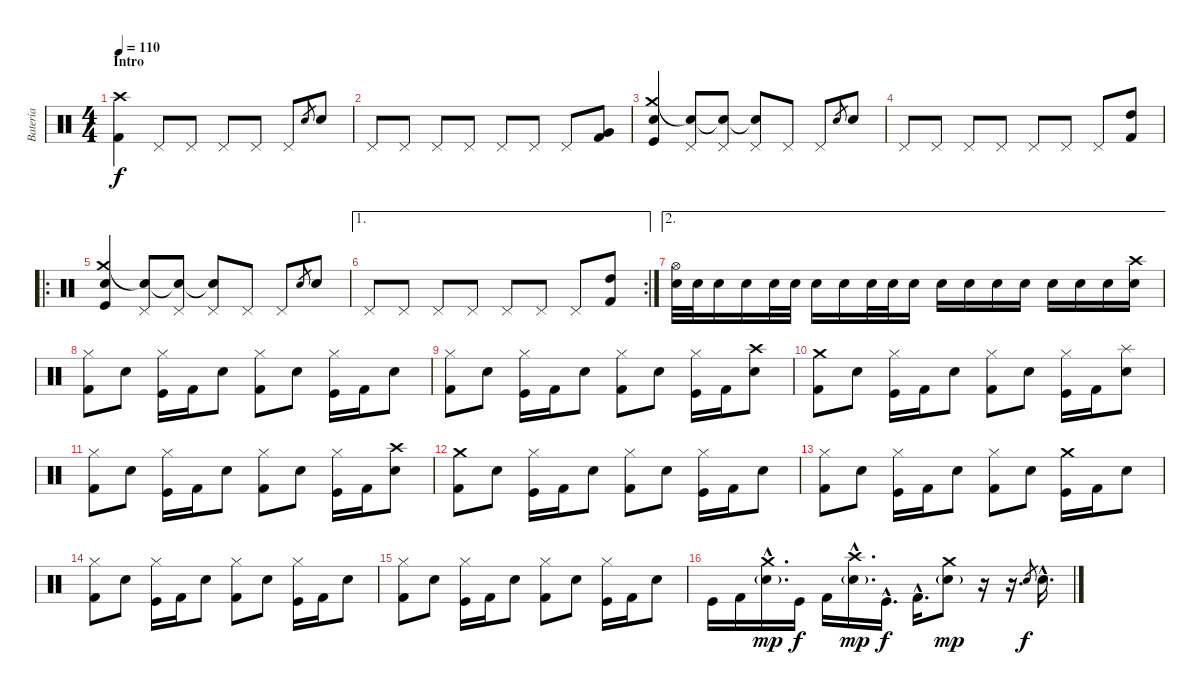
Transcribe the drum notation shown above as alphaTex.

\track ("Batería" "Batería") {instrument percussion}
\staff {score}
\articulation defaults
\ts (4 4)
\section ("" "Intro")
\tempo 110
\clef neutral
\ks c
("Crash high (hit)" "Kick (hit) 2").4{dy f} "Pedal Hi-Hat (hit)".8 "Pedal Hi-Hat (hit)".8 "Pedal Hi-Hat (hit)".8 "Pedal Hi-Hat (hit)".8 "Pedal Hi-Hat (hit)".8 "Snare (hit) 2".8{gr} "Electric Snare (hit)".8 |
"Pedal Hi-Hat (hit)".8 "Pedal Hi-Hat (hit)".8 "Pedal Hi-Hat (hit)".8 "Pedal Hi-Hat (hit)".8 "Pedal Hi-Hat (hit)".8 "Pedal Hi-Hat (hit)".8 "Pedal Hi-Hat (hit)".8 ("Very Low Tom (hit)" "Kick (hit) 2").8 |
("Crash medium (hit)" "Electric Snare (hit)" "Kick (hit)").4 ("Snare (hit)"{t} "Pedal Hi-Hat (hit)").8 ("Snare (hit)"{t} "Pedal Hi-Hat (hit)").8 ("Snare (hit)"{t} "Pedal Hi-Hat (hit)").8 "Pedal Hi-Hat (hit)".8 "Pedal Hi-Hat (hit)".8 "Snare (hit) 2".8{gr} "Electric Snare (hit)".8 |
"Pedal Hi-Hat (hit)".8 "Pedal Hi-Hat (hit)".8 "Pedal Hi-Hat (hit)".8 "Pedal Hi-Hat (hit)".8 "Pedal Hi-Hat (hit)".8 "Pedal Hi-Hat (hit)".8 "Pedal Hi-Hat (hit)".8 ("High Tom (hit)" "Kick (hit) 2").8 |
\ro
("Crash medium (hit)" "Electric Snare (hit)" "Kick (hit)").4 ("Snare (hit)"{t} "Pedal Hi-Hat (hit)").8 ("Snare (hit)"{t} "Pedal Hi-Hat (hit)").8 ("Snare (hit)"{t} "Pedal Hi-Hat (hit)").8 "Pedal Hi-Hat (hit)".8 "Pedal Hi-Hat (hit)".8 "Snare (hit) 2".8{gr} "Electric Snare (hit)".8 |
\ae 1
\rc 2 "Pedal Hi-Hat (hit)".8 "Pedal Hi-Hat (hit)".8 "Pedal Hi-Hat (hit)".8 "Pedal Hi-Hat (hit)".8 "Pedal Hi-Hat (hit)".8 "Pedal Hi-Hat (hit)".8 "Pedal Hi-Hat (hit)".8
("High Tom (hit)" "Kick (hit) 2").8 |
\ae 2
("Hi-Hat (open)" "Electric Snare (hit)").32 "Electric Snare (hit)".32 "Electric Snare (hit)".16 "Electric Snare (hit)".16 "Electric Snare (hit)".32 "Electric Snare (hit)".32 "Electric Snare (hit)".16 "Electric Snare (hit)".16 "Electric Snare (hit)".32 "Electric Snare (hit)".32 "Electric Snare (hit)".16 "Electric Snare (hit)".16 "Electric Snare (hit)".16 "Electric Snare (hit)".16 "Electric Snare (hit)".16 "Electric Snare (hit)".16 "Electric Snare (hit)".16 "Electric Snare (hit)".16 ("Crash high (hit)" "Electric Snare (hit)").16 |
("Hi-Hat (closed)" "Kick (hit) 2").8 "Electric Snare (hit)".8 ("Hi-Hat (closed)" "Kick (hit)").16 "Kick (hit) 2".16 "Electric Snare (hit)".8 ("Hi-Hat (closed)" "Kick (hit) 2").8 "Electric Snare (hit)".8 ("Hi-Hat (closed)" "Kick (hit)").16 "Kick (hit) 2".16 "Electric Snare (hit)".8 |
("Hi-Hat (closed)" "Kick (hit) 2").8 "Electric Snare (hit)".8 ("Hi-Hat (closed)" "Kick (hit)").16 "Kick (hit) 2".16 "Electric Snare (hit)".8 ("Hi-Hat (closed)" "Kick (hit) 2").8 "Electric Snare (hit)".8 ("Hi-Hat (closed)" "Kick (hit)").16 "Kick (hit) 2".16 ("Crash high (hit)" "Electric Snare (hit)").8 |
("Crash medium (hit)" "Kick (hit) 2").8 "Electric Snare (hit)".8 ("Hi-Hat (closed)" "Kick (hit)").16 "Kick (hit) 2".16 "Electric Snare (hit)".8 ("Hi-Hat (closed)" "Kick (hit) 2").8 "Electric Snare (hit)".8 ("Hi-Hat (closed)" "Kick (hit)").16 "Kick (hit) 2".16 ("Splash (hit)" "Electric Snare (hit)").8 |
("Hi-Hat (closed)" "Kick (hit) 2").8 "Electric Snare (hit)".8 ("Hi-Hat (closed)" "Kick (hit)").16 "Kick (hit) 2".16 "Electric Snare (hit)".8 ("Hi-Hat (closed)" "Kick (hit) 2").8 "Electric Snare (hit)".8 ("Hi-Hat (closed)" "Kick (hit)").16 "Kick (hit) 2".16 ("Crash high (hit)" "Electric Snare (hit)").8 |
("Crash medium (hit)" "Kick (hit) 2").8 "Electric Snare (hit)".8 ("Hi-Hat (closed)" "Kick (hit)").16 "Kick (hit) 2".16 "Electric Snare (hit)".8 ("Hi-Hat (closed)" "Kick (hit) 2").8 "Electric Snare (hit)".8 ("Hi-Hat (closed)" "Kick (hit)").16 "Kick (hit) 2".16 "Electric Snare (hit)".8 |
("Hi-Hat (closed)" "Kick (hit) 2").8 "Electric Snare (hit)".8 ("Hi-Hat (closed)" "Kick (hit)").16 "Kick (hit) 2".16 "Electric Snare (hit)".8 ("Hi-Hat (closed)" "Kick (hit) 2").8 "Electric Snare (hit)".8 ("Crash medium (hit)" "Kick (hit)").16 "Kick (hit) 2".16 "Electric Snare (hit)".8 |
("Hi-Hat (closed)" "Kick (hit) 2").8 "Electric Snare (hit)".8 ("Hi-Hat (closed)" "Kick (hit)").16 "Kick (hit) 2".16 "Electric Snare (hit)".8 ("Hi-Hat (closed)" "Kick (hit) 2").8 "Electric Snare (hit)".8 ("Hi-Hat (closed)" "Kick (hit)").16 "Kick (hit) 2".16 "Electric Snare (hit)".8 |
("Hi-Hat (closed)" "Kick (hit) 2").8 "Electric Snare (hit)".8 ("Hi-Hat (closed)" "Kick (hit)").16 "Kick (hit) 2".16 "Electric Snare (hit)".8 ("Hi-Hat (closed)" "Kick (hit) 2").8 "Electric Snare (hit)".8 ("Hi-Hat (closed)" "Kick (hit)").16 "Kick (hit) 2".16 "Electric Snare (hit)".8 |
"Kick (hit)".16 "Kick (hit) 2".16 ("Crash medium (hit)"{hac} "Electric Snare (hit)"{g hac}).16{d dy mp} "Kick (hit)".16{dy f} "Kick (hit) 2".16 ("Crash high (hit)"{hac} "Electric Snare (hit)"{g hac}).16{d dy mp} "Kick (hit)"{hac}.16{d dy f} "Kick (hit) 2"{hac}.16{d} ("Crash medium (hit)" "Electric Snare (hit)"{g}).8{dy mp} r.16 r.16{d} "Snare (hit) 2".8{gr dy f} "Electric Snare (hit)"{hac}.16{d}
